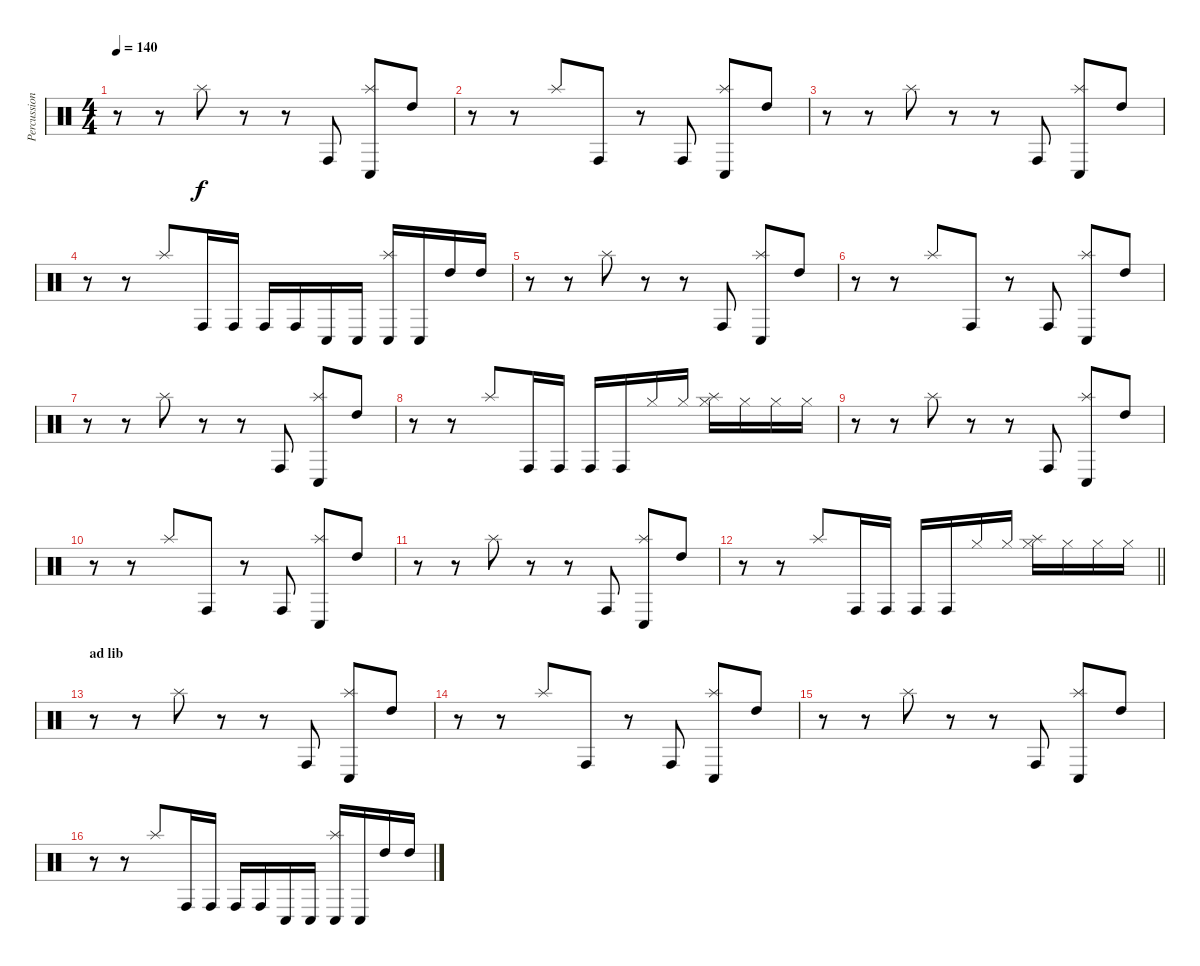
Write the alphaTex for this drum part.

\track ("Percussion" "Percussion") {instrument percussion}
\staff {score}
\articulation defaults
\ts (4 4)
\tempo 140
\clef neutral
\ks c
r.8{dy f} r.8 "Splash (hit)".8 r.8 r.8 "Conga high (hit)".8 ("Conga low (hit)" "Splash (hit)").8 "High Tom (hit)".8 |
r.8 r.8 "Splash (hit)".8 "Conga high (hit)".8 r.8 "Conga high (hit)".8 ("Conga low (hit)" "Splash (hit)").8 "High Tom (hit)".8 |
r.8 r.8 "Splash (hit)".8 r.8 r.8 "Conga high (hit)".8 ("Conga low (hit)" "Splash (hit)").8 "High Tom (hit)".8 |
r.8 r.8 "Splash (hit)".8 "Conga high (hit)".16 "Conga high (hit)".16 "Conga high (hit)".16 "Conga high (hit)".16 "Conga low (hit)".16 "Conga low (hit)".16 ("Conga low (hit)" "Splash (hit)").16 "Conga low (hit)".16 "High Tom (hit)".16 "High Tom (hit)".16 |
r.8 r.8 "Splash (hit)".8 r.8 r.8 "Conga high (hit)".8 ("Conga low (hit)" "Splash (hit)").8 "High Tom (hit)".8 |
r.8 r.8 "Splash (hit)".8 "Conga high (hit)".8 r.8 "Conga high (hit)".8 ("Conga low (hit)" "Splash (hit)").8 "High Tom (hit)".8 |
r.8 r.8 "Splash (hit)".8 r.8 r.8 "Conga high (hit)".8 ("Conga low (hit)" "Splash (hit)").8 "High Tom (hit)".8 |
r.8 r.8 "Splash (hit)".8 "Conga high (hit)".16 "Conga high (hit)".16 "Conga high (hit)".16 "Conga high (hit)".16 "Hi-Hat (closed)".16 "Hi-Hat (closed)".16 ("Hi-Hat (closed)" "Splash (hit)").16 "Hi-Hat (closed)".16 "Hi-Hat (closed)".16 "Hi-Hat (closed)".16 |
r.8 r.8 "Splash (hit)".8 r.8 r.8 "Conga high (hit)".8 ("Conga low (hit)" "Splash (hit)").8 "High Tom (hit)".8 |
r.8 r.8 "Splash (hit)".8 "Conga high (hit)".8 r.8 "Conga high (hit)".8 ("Conga low (hit)" "Splash (hit)").8 "High Tom (hit)".8 |
r.8 r.8 "Splash (hit)".8 r.8 r.8 "Conga high (hit)".8 ("Conga low (hit)" "Splash (hit)").8 "High Tom (hit)".8 |
\barLineRight lightlight
r.8 r.8 "Splash (hit)".8 "Conga high (hit)".16 "Conga high (hit)".16 "Conga high (hit)".16 "Conga high (hit)".16 "Hi-Hat (closed)".16 "Hi-Hat (closed)".16 ("Hi-Hat (closed)" "Splash (hit)").16 "Hi-Hat (closed)".16 "Hi-Hat (closed)".16 "Hi-Hat (closed)".16 |
\section ("" "ad lib")
r.8 r.8 "Splash (hit)".8 r.8 r.8 "Conga high (hit)".8 ("Conga low (hit)" "Splash (hit)").8 "High Tom (hit)".8 |
r.8 r.8 "Splash (hit)".8 "Conga high (hit)".8 r.8 "Conga high (hit)".8 ("Conga low (hit)" "Splash (hit)").8 "High Tom (hit)".8 |
r.8 r.8 "Splash (hit)".8 r.8 r.8 "Conga high (hit)".8 ("Conga low (hit)" "Splash (hit)").8 "High Tom (hit)".8 |
r.8 r.8 "Splash (hit)".8 "Conga high (hit)".16 "Conga high (hit)".16 "Conga high (hit)".16 "Conga high (hit)".16 "Conga low (hit)".16 "Conga low (hit)".16 ("Conga low (hit)" "Splash (hit)").16 "Conga low (hit)".16 "High Tom (hit)".16 "High Tom (hit)".16
